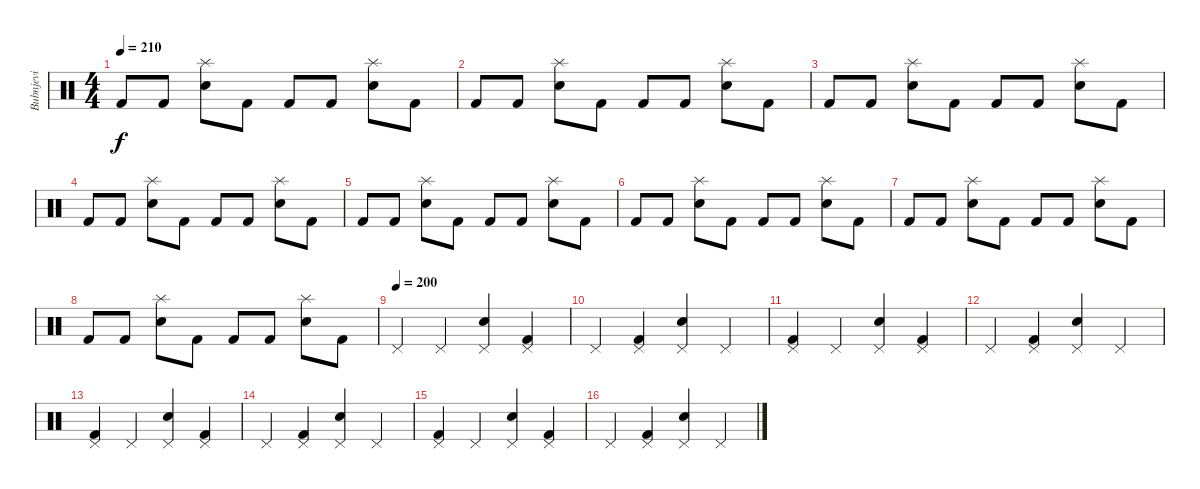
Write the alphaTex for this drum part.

\track ("Bubnjevi" "Bubnjevi") {instrument percussion}
\staff {score}
\articulation defaults
\ts (4 4)
\tempo 210
\clef neutral
\ks c "Kick (hit) 2".8{dy f} "Kick (hit) 2".8
("Splash (hit)" "Electric Snare (hit)").8 "Kick (hit) 2".8 "Kick (hit) 2".8 "Kick (hit) 2".8 ("Splash (hit)" "Electric Snare (hit)").8 "Kick (hit) 2".8 |
"Kick (hit) 2".8 "Kick (hit) 2".8 ("Splash (hit)" "Electric Snare (hit)").8 "Kick (hit) 2".8 "Kick (hit) 2".8 "Kick (hit) 2".8 ("Splash (hit)" "Electric Snare (hit)").8 "Kick (hit) 2".8 |
"Kick (hit) 2".8 "Kick (hit) 2".8 ("Splash (hit)" "Electric Snare (hit)").8 "Kick (hit) 2".8 "Kick (hit) 2".8 "Kick (hit) 2".8 ("Splash (hit)" "Electric Snare (hit)").8 "Kick (hit) 2".8 |
"Kick (hit) 2".8 "Kick (hit) 2".8 ("Splash (hit)" "Electric Snare (hit)").8 "Kick (hit) 2".8 "Kick (hit) 2".8 "Kick (hit) 2".8 ("Splash (hit)" "Electric Snare (hit)").8 "Kick (hit) 2".8 |
"Kick (hit) 2".8 "Kick (hit) 2".8 ("Splash (hit)" "Electric Snare (hit)").8 "Kick (hit) 2".8 "Kick (hit) 2".8 "Kick (hit) 2".8 ("Splash (hit)" "Electric Snare (hit)").8 "Kick (hit) 2".8 |
"Kick (hit) 2".8 "Kick (hit) 2".8 ("Splash (hit)" "Electric Snare (hit)").8 "Kick (hit) 2".8 "Kick (hit) 2".8 "Kick (hit) 2".8 ("Splash (hit)" "Electric Snare (hit)").8 "Kick (hit) 2".8 |
"Kick (hit) 2".8 "Kick (hit) 2".8 ("Splash (hit)" "Electric Snare (hit)").8 "Kick (hit) 2".8 "Kick (hit) 2".8 "Kick (hit) 2".8 ("Splash (hit)" "Electric Snare (hit)").8 "Kick (hit) 2".8 |
"Kick (hit) 2".8 "Kick (hit) 2".8 ("Splash (hit)" "Electric Snare (hit)").8 "Kick (hit) 2".8 "Kick (hit) 2".8 "Kick (hit) 2".8 ("Splash (hit)" "Electric Snare (hit)").8 "Kick (hit) 2".8 |
\tempo (200)
"Pedal Hi-Hat (hit)".4 "Pedal Hi-Hat (hit)".4 ("Pedal Hi-Hat (hit)" "Electric Snare (hit)").4 ("Pedal Hi-Hat (hit)" "Kick (hit) 2").4 |
"Pedal Hi-Hat (hit)".4 ("Pedal Hi-Hat (hit)" "Kick (hit) 2").4 ("Pedal Hi-Hat (hit)" "Electric Snare (hit)").4 "Pedal Hi-Hat (hit)".4 |
("Pedal Hi-Hat (hit)" "Kick (hit) 2").4 "Pedal Hi-Hat (hit)".4 ("Pedal Hi-Hat (hit)" "Electric Snare (hit)").4 ("Pedal Hi-Hat (hit)" "Kick (hit) 2").4 |
"Pedal Hi-Hat (hit)".4 ("Pedal Hi-Hat (hit)" "Kick (hit) 2").4 ("Pedal Hi-Hat (hit)" "Electric Snare (hit)").4 "Pedal Hi-Hat (hit)".4 |
("Pedal Hi-Hat (hit)" "Kick (hit) 2").4 "Pedal Hi-Hat (hit)".4 ("Pedal Hi-Hat (hit)" "Electric Snare (hit)").4 ("Pedal Hi-Hat (hit)" "Kick (hit) 2").4 |
"Pedal Hi-Hat (hit)".4 ("Pedal Hi-Hat (hit)" "Kick (hit) 2").4 ("Pedal Hi-Hat (hit)" "Electric Snare (hit)").4 "Pedal Hi-Hat (hit)".4 |
("Pedal Hi-Hat (hit)" "Kick (hit) 2").4 "Pedal Hi-Hat (hit)".4 ("Pedal Hi-Hat (hit)" "Electric Snare (hit)").4 ("Pedal Hi-Hat (hit)" "Kick (hit) 2").4 |
"Pedal Hi-Hat (hit)".4 ("Pedal Hi-Hat (hit)" "Kick (hit) 2").4 ("Pedal Hi-Hat (hit)" "Electric Snare (hit)").4 "Pedal Hi-Hat (hit)".4
